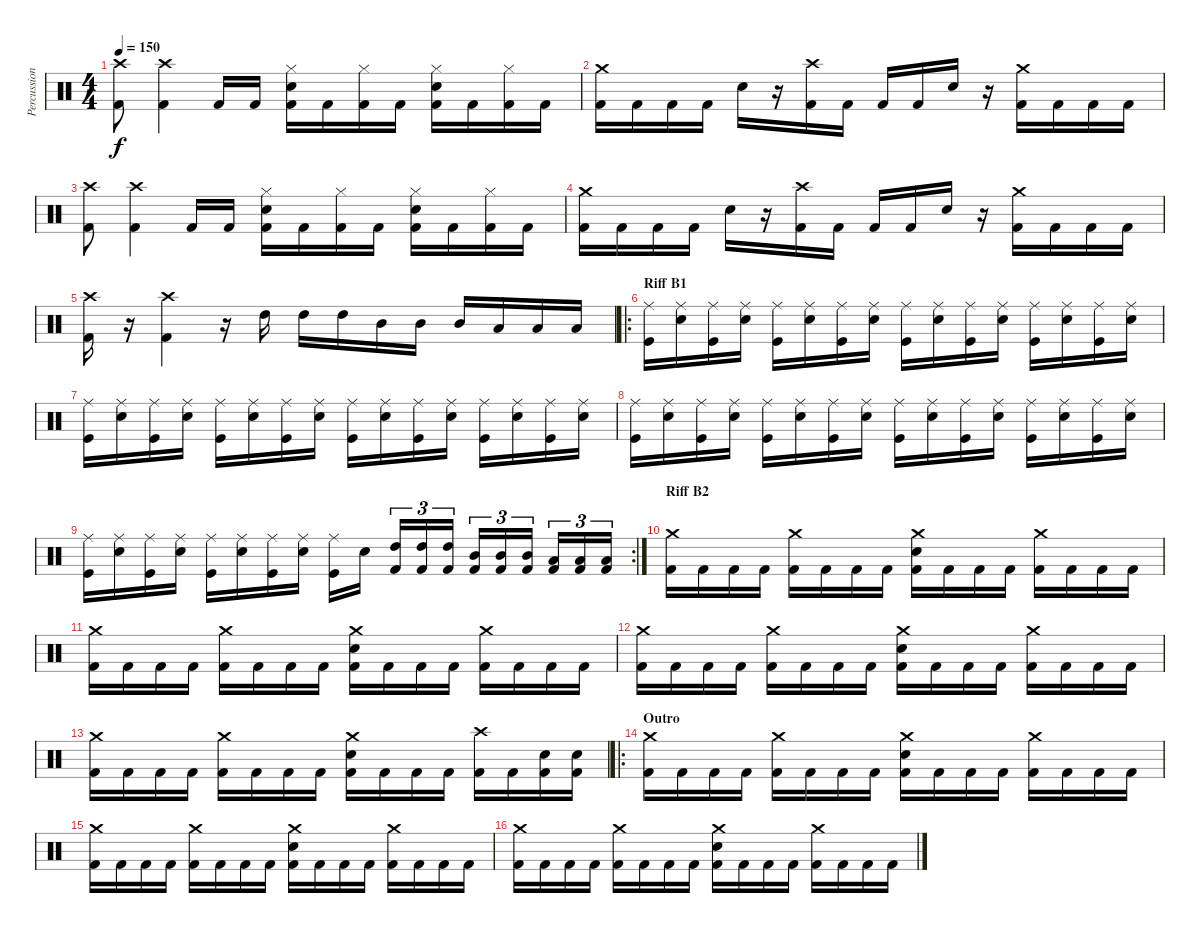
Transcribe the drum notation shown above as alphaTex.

\track ("Percussions" "Percussion") {instrument percussion}
\staff {score}
\articulation defaults
\ts (4 4)
\tempo 150
\clef neutral
\ks c
("Crash high (hit)" "Kick (hit) 2").8{dy f} ("Crash high (hit)" "Kick (hit) 2").4 "Kick (hit) 2".16 "Kick (hit) 2".16 ("Hi-Hat (closed)" "Snare (hit) 2" "Kick (hit) 2").16 "Kick (hit) 2".16 ("Hi-Hat (closed)" "Kick (hit) 2").16 "Kick (hit) 2".16 ("Hi-Hat (closed)" "Snare (hit) 2" "Kick (hit) 2").16 "Kick (hit) 2".16 ("Hi-Hat (closed)" "Kick (hit) 2").16 "Kick (hit) 2".16 |
("Crash medium (hit)" "Kick (hit) 2").16 "Kick (hit) 2".16 "Kick (hit) 2".16 "Kick (hit) 2".16 "Snare (hit) 2".16 r.16 ("Crash high (hit)" "Kick (hit) 2").16 "Kick (hit) 2".16 "Kick (hit) 2".16 "Kick (hit) 2".16 "Snare (hit) 2".16 r.16 ("Crash medium (hit)" "Kick (hit) 2").16 "Kick (hit) 2".16 "Kick (hit) 2".16 "Kick (hit) 2".16 |
("Crash high (hit)" "Kick (hit) 2").8 ("Crash high (hit)" "Kick (hit) 2").4 "Kick (hit) 2".16 "Kick (hit) 2".16 ("Hi-Hat (closed)" "Snare (hit) 2" "Kick (hit) 2").16 "Kick (hit) 2".16 ("Hi-Hat (closed)" "Kick (hit) 2").16 "Kick (hit) 2".16 ("Hi-Hat (closed)" "Snare (hit) 2" "Kick (hit) 2").16 "Kick (hit) 2".16 ("Hi-Hat (closed)" "Kick (hit) 2").16 "Kick (hit) 2".16 |
("Crash medium (hit)" "Kick (hit) 2").16 "Kick (hit) 2".16 "Kick (hit) 2".16 "Kick (hit) 2".16 "Snare (hit) 2".16 r.16 ("Crash high (hit)" "Kick (hit) 2").16 "Kick (hit) 2".16 "Kick (hit) 2".16 "Kick (hit) 2".16 "Snare (hit) 2".16 r.16 ("Crash medium (hit)" "Kick (hit) 2").16 "Kick (hit) 2".16 "Kick (hit) 2".16 "Kick (hit) 2".16 |
("Crash high (hit)" "Kick (hit) 2").16 r.16 ("Crash high (hit)" "Kick (hit) 2").4 r.16 "High Tom (hit)".16 "High Tom (hit)".16 "High Tom (hit)".16 "Mid Tom (hit)".16 "Mid Tom (hit)".16 "Mid Tom (hit)".16 "Low Tom (hit)".16 "Low Tom (hit)".16 "Low Tom (hit)".16 |
\ro
\section ("" "Riff B1")
("Ride (middle)" "Kick (hit)").16 ("Ride (middle)" "Snare (hit) 2").16 ("Ride (middle)" "Kick (hit)").16 ("Ride (middle)" "Snare (hit) 2").16 ("Ride (middle)" "Kick (hit)").16 ("Ride (middle)" "Snare (hit) 2").16 ("Ride (middle)" "Kick (hit)").16 ("Ride (middle)" "Snare (hit) 2").16 ("Ride (middle)" "Kick (hit)").16 ("Ride (middle)" "Snare (hit) 2").16 ("Ride (middle)" "Kick (hit)").16 ("Ride (middle)" "Snare (hit) 2").16 ("Ride (middle)" "Kick (hit)").16 ("Ride (middle)" "Snare (hit) 2").16 ("Ride (middle)" "Kick (hit)").16 ("Ride (middle)" "Snare (hit) 2").16 |
("Ride (middle)" "Kick (hit)").16 ("Ride (middle)" "Snare (hit) 2").16 ("Ride (middle)" "Kick (hit)").16 ("Ride (middle)" "Snare (hit) 2").16 ("Ride (middle)" "Kick (hit)").16 ("Ride (middle)" "Snare (hit) 2").16 ("Ride (middle)" "Kick (hit)").16 ("Ride (middle)" "Snare (hit) 2").16 ("Ride (middle)" "Kick (hit)").16 ("Ride (middle)" "Snare (hit) 2").16 ("Ride (middle)" "Kick (hit)").16 ("Ride (middle)" "Snare (hit) 2").16 ("Ride (middle)" "Kick (hit)").16 ("Ride (middle)" "Snare (hit) 2").16 ("Ride (middle)" "Kick (hit)").16 ("Ride (middle)" "Snare (hit) 2").16 |
("Ride (middle)" "Kick (hit)").16 ("Ride (middle)" "Snare (hit) 2").16 ("Ride (middle)" "Kick (hit)").16 ("Ride (middle)" "Snare (hit) 2").16 ("Ride (middle)" "Kick (hit)").16 ("Ride (middle)" "Snare (hit) 2").16 ("Ride (middle)" "Kick (hit)").16 ("Ride (middle)" "Snare (hit) 2").16 ("Ride (middle)" "Kick (hit)").16 ("Ride (middle)" "Snare (hit) 2").16 ("Ride (middle)" "Kick (hit)").16 ("Ride (middle)" "Snare (hit) 2").16 ("Ride (middle)" "Kick (hit)").16 ("Ride (middle)" "Snare (hit) 2").16 ("Ride (middle)" "Kick (hit)").16 ("Ride (middle)" "Snare (hit) 2").16 |
\rc 2
("Ride (middle)" "Kick (hit)").16 ("Ride (middle)" "Snare (hit) 2").16 ("Ride (middle)" "Kick (hit)").16 ("Ride (middle)" "Snare (hit) 2").16 ("Ride (middle)" "Kick (hit)").16 ("Ride (middle)" "Snare (hit) 2").16 ("Ride (middle)" "Kick (hit)").16 ("Ride (middle)" "Snare (hit) 2").16 ("Ride (middle)" "Kick (hit)").16 "Snare (hit) 2".16 ("High Tom (hit)" "Kick (hit) 2").16{tu (3 2)} ("High Tom (hit)" "Kick (hit) 2").16{tu (3 2)} ("High Tom (hit)" "Kick (hit) 2").16{tu (3 2)} ("Mid Tom (hit)" "Kick (hit) 2").16{tu (3 2)} ("Mid Tom (hit)" "Kick (hit) 2").16{tu (3 2)} ("Mid Tom (hit)" "Kick (hit) 2").16{tu (3 2)} ("Low Tom (hit)" "Kick (hit) 2").16{tu (3 2)} ("Low Tom (hit)" "Kick (hit) 2").16{tu (3 2)} ("Low Tom (hit)" "Kick (hit) 2").16{tu (3 2)} |
\section ("" "Riff B2")
("Crash medium (hit)" "Kick (hit) 2").16 "Kick (hit) 2".16 "Kick (hit) 2".16 "Kick (hit) 2".16 ("Crash medium (hit)" "Kick (hit) 2").16 "Kick (hit) 2".16 "Kick (hit) 2".16 "Kick (hit) 2".16 ("Crash medium (hit)" "Snare (hit) 2" "Kick (hit) 2").16 "Kick (hit) 2".16 "Kick (hit) 2".16 "Kick (hit) 2".16 ("Crash medium (hit)" "Kick (hit) 2").16 "Kick (hit) 2".16 "Kick (hit) 2".16 "Kick (hit) 2".16 |
("Crash medium (hit)" "Kick (hit) 2").16 "Kick (hit) 2".16 "Kick (hit) 2".16 "Kick (hit) 2".16 ("Crash medium (hit)" "Kick (hit) 2").16 "Kick (hit) 2".16 "Kick (hit) 2".16 "Kick (hit) 2".16 ("Crash medium (hit)" "Snare (hit) 2" "Kick (hit) 2").16 "Kick (hit) 2".16 "Kick (hit) 2".16 "Kick (hit) 2".16 ("Crash medium (hit)" "Kick (hit) 2").16 "Kick (hit) 2".16 "Kick (hit) 2".16 "Kick (hit) 2".16 |
("Crash medium (hit)" "Kick (hit) 2").16 "Kick (hit) 2".16 "Kick (hit) 2".16 "Kick (hit) 2".16 ("Crash medium (hit)" "Kick (hit) 2").16 "Kick (hit) 2".16 "Kick (hit) 2".16 "Kick (hit) 2".16 ("Crash medium (hit)" "Snare (hit) 2" "Kick (hit) 2").16 "Kick (hit) 2".16 "Kick (hit) 2".16 "Kick (hit) 2".16 ("Crash medium (hit)" "Kick (hit) 2").16 "Kick (hit) 2".16 "Kick (hit) 2".16 "Kick (hit) 2".16 |
("Crash medium (hit)" "Kick (hit) 2").16 "Kick (hit) 2".16 "Kick (hit) 2".16 "Kick (hit) 2".16 ("Crash medium (hit)" "Kick (hit) 2").16 "Kick (hit) 2".16 "Kick (hit) 2".16 "Kick (hit) 2".16 ("Crash medium (hit)" "Snare (hit) 2" "Kick (hit) 2").16 "Kick (hit) 2".16 "Kick (hit) 2".16 "Kick (hit) 2".16 ("Crash high (hit)" "Kick (hit) 2").16 "Kick (hit) 2".16 ("Snare (hit) 2" "Kick (hit) 2").16 ("Snare (hit) 2" "Kick (hit) 2").16 |
\ro
\section ("" "Outro")
("Crash medium (hit)" "Kick (hit) 2").16 "Kick (hit) 2".16 "Kick (hit) 2".16 "Kick (hit) 2".16 ("Crash medium (hit)" "Kick (hit) 2").16 "Kick (hit) 2".16 "Kick (hit) 2".16 "Kick (hit) 2".16 ("Crash medium (hit)" "Snare (hit) 2" "Kick (hit) 2").16 "Kick (hit) 2".16 "Kick (hit) 2".16 "Kick (hit) 2".16 ("Crash medium (hit)" "Kick (hit) 2").16 "Kick (hit) 2".16 "Kick (hit) 2".16 "Kick (hit) 2".16 |
("Crash medium (hit)" "Kick (hit) 2").16 "Kick (hit) 2".16 "Kick (hit) 2".16 "Kick (hit) 2".16 ("Crash medium (hit)" "Kick (hit) 2").16 "Kick (hit) 2".16 "Kick (hit) 2".16 "Kick (hit) 2".16 ("Crash medium (hit)" "Snare (hit) 2" "Kick (hit) 2").16 "Kick (hit) 2".16 "Kick (hit) 2".16 "Kick (hit) 2".16 ("Crash medium (hit)" "Kick (hit) 2").16 "Kick (hit) 2".16 "Kick (hit) 2".16 "Kick (hit) 2".16 |
("Crash medium (hit)" "Kick (hit) 2").16 "Kick (hit) 2".16 "Kick (hit) 2".16 "Kick (hit) 2".16 ("Crash medium (hit)" "Kick (hit) 2").16 "Kick (hit) 2".16 "Kick (hit) 2".16 "Kick (hit) 2".16 ("Crash medium (hit)" "Snare (hit) 2" "Kick (hit) 2").16 "Kick (hit) 2".16 "Kick (hit) 2".16 "Kick (hit) 2".16 ("Crash medium (hit)" "Kick (hit) 2").16 "Kick (hit) 2".16 "Kick (hit) 2".16 "Kick (hit) 2".16
